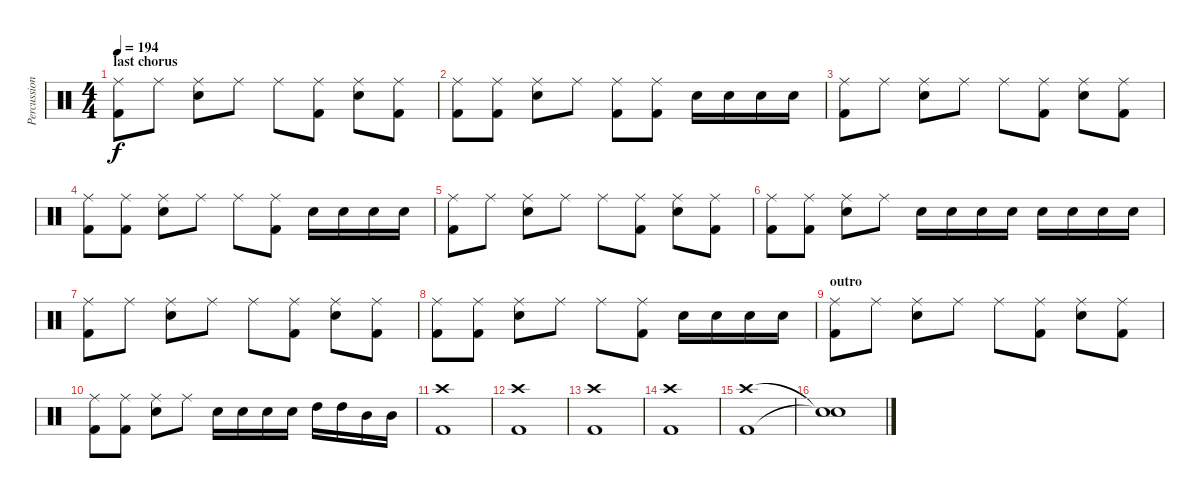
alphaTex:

\track ("Percussion" "Percussion") {instrument percussion}
\staff {score}
\articulation defaults
\ts (4 4)
\section ("" "last chorus")
\tempo 194
\clef neutral
\ks c
("Ride (middle)" "Kick (hit) 2").8{dy f} "Ride (middle)".8 ("Ride (middle)" "Snare (hit) 2").8 "Ride (middle)".8 "Ride (middle)".8 ("Ride (middle)" "Kick (hit) 2").8 ("Ride (middle)" "Snare (hit) 2").8 ("Ride (middle)" "Kick (hit) 2").8 |
("Ride (middle)" "Kick (hit) 2").8 ("Ride (middle)" "Kick (hit) 2").8 ("Ride (middle)" "Snare (hit) 2").8 "Ride (middle)".8 ("Ride (middle)" "Kick (hit) 2").8 ("Ride (middle)" "Kick (hit) 2").8 "Snare (hit) 2".16 "Snare (hit) 2".16 "Snare (hit) 2".16 "Snare (hit) 2".16 |
("Ride (middle)" "Kick (hit) 2").8 "Ride (middle)".8 ("Ride (middle)" "Snare (hit) 2").8 "Ride (middle)".8 "Ride (middle)".8 ("Ride (middle)" "Kick (hit) 2").8 ("Ride (middle)" "Snare (hit) 2").8 ("Ride (middle)" "Kick (hit) 2").8 |
("Ride (middle)" "Kick (hit) 2").8 ("Ride (middle)" "Kick (hit) 2").8 ("Ride (middle)" "Snare (hit) 2").8 "Ride (middle)".8 "Ride (middle)".8 ("Ride (middle)" "Kick (hit) 2").8 "Snare (hit) 2".16 "Snare (hit) 2".16 "Snare (hit) 2".16 "Snare (hit) 2".16 |
("Ride (middle)" "Kick (hit) 2").8 "Ride (middle)".8 ("Ride (middle)" "Snare (hit) 2").8 "Ride (middle)".8 "Ride (middle)".8 ("Ride (middle)" "Kick (hit) 2").8 ("Ride (middle)" "Snare (hit) 2").8 ("Ride (middle)" "Kick (hit) 2").8 |
("Ride (middle)" "Kick (hit) 2").8 ("Ride (middle)" "Kick (hit) 2").8 ("Ride (middle)" "Snare (hit) 2").8 "Ride (middle)".8 "Snare (hit) 2".16 "Snare (hit) 2".16 "Snare (hit) 2".16 "Snare (hit) 2".16 "Snare (hit) 2".16 "Snare (hit) 2".16 "Snare (hit) 2".16 "Snare (hit) 2".16 |
("Ride (middle)" "Kick (hit) 2").8 "Ride (middle)".8 ("Ride (middle)" "Snare (hit) 2").8 "Ride (middle)".8 "Ride (middle)".8 ("Ride (middle)" "Kick (hit) 2").8 ("Ride (middle)" "Snare (hit) 2").8 ("Ride (middle)" "Kick (hit) 2").8 |
("Ride (middle)" "Kick (hit) 2").8 ("Ride (middle)" "Kick (hit) 2").8 ("Ride (middle)" "Snare (hit) 2").8 "Ride (middle)".8 "Ride (middle)".8 ("Ride (middle)" "Kick (hit) 2").8 "Snare (hit) 2".16 "Snare (hit) 2".16 "Snare (hit) 2".16 "Snare (hit) 2".16 |
\section ("" "outro")
("Ride (middle)" "Kick (hit) 2").8 "Ride (middle)".8 ("Ride (middle)" "Snare (hit) 2").8 "Ride (middle)".8 "Ride (middle)".8 ("Ride (middle)" "Kick (hit) 2").8 ("Ride (middle)" "Snare (hit) 2").8 ("Ride (middle)" "Kick (hit) 2").8 |
("Ride (middle)" "Kick (hit) 2").8 ("Ride (middle)" "Kick (hit) 2").8 ("Ride (middle)" "Snare (hit) 2").8 "Ride (middle)".8 "Snare (hit) 2".16 "Snare (hit) 2".16 "Snare (hit) 2".16 "Snare (hit) 2".16 "High Tom (hit)".16 "High Tom (hit)".16 "Mid Tom (hit)".16 "Mid Tom (hit)".16 |
("Crash high (hit)" "Kick (hit) 2").1 |
("Crash high (hit)" "Kick (hit) 2").1 |
("Crash high (hit)" "Kick (hit) 2").1 |
("Crash high (hit)" "Kick (hit) 2").1 |
("Crash high (hit)" "Kick (hit) 2").1 |
("Snare (hit)"{t} "Snare (hit)"{t}).1
